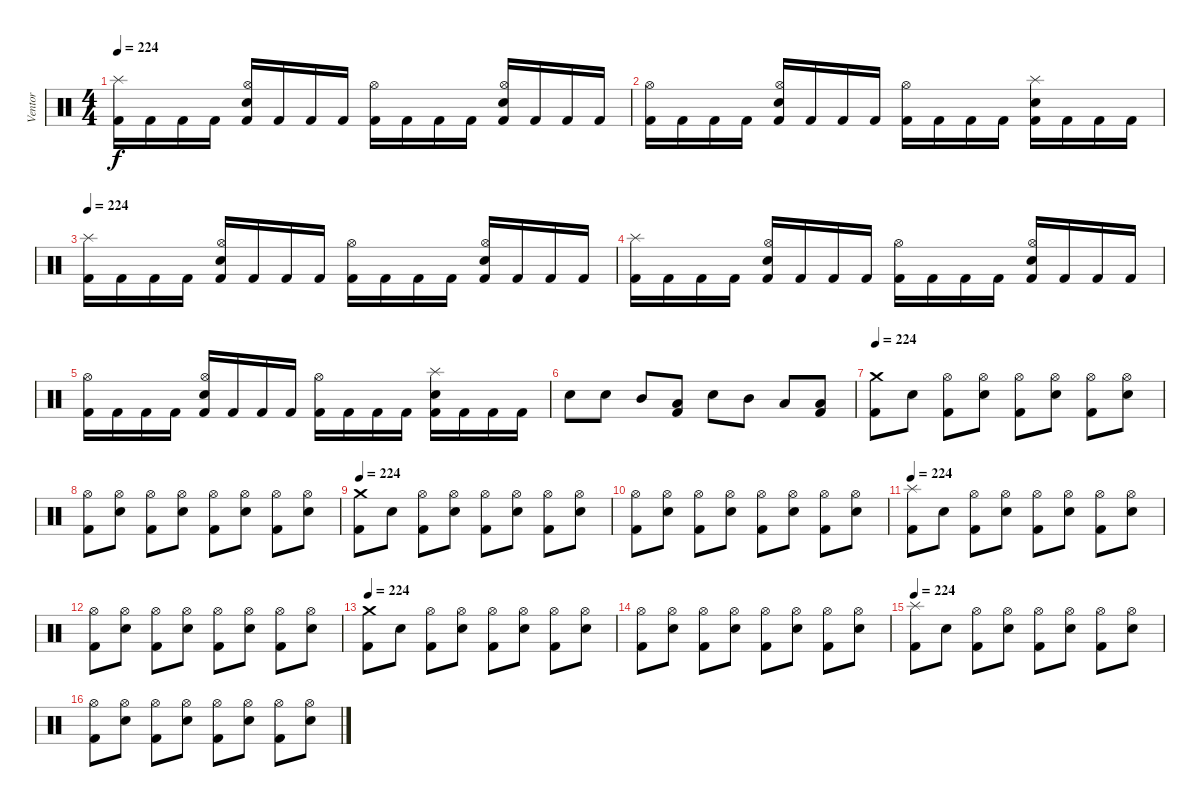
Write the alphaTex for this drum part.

\track ("Ventor" "Ventor") {instrument percussion}
\staff {score}
\articulation defaults
\ts (4 4)
\tempo 224
\clef neutral
\ks c
("Splash (hit)" "Kick (hit) 2").16{dy f} "Kick (hit) 2".16 "Kick (hit) 2".16 "Kick (hit) 2".16 ("Hi-Hat (open)" "Electric Snare (hit)" "Kick (hit) 2").16 "Kick (hit) 2".16 "Kick (hit) 2".16 "Kick (hit) 2".16 ("Hi-Hat (open)" "Kick (hit) 2").16 "Kick (hit) 2".16 "Kick (hit) 2".16 "Kick (hit) 2".16 ("Hi-Hat (open)" "Electric Snare (hit)" "Kick (hit) 2").16 "Kick (hit) 2".16 "Kick (hit) 2".16 "Kick (hit) 2".16 |
("Hi-Hat (open)" "Kick (hit) 2").16 "Kick (hit) 2".16 "Kick (hit) 2".16 "Kick (hit) 2".16 ("Hi-Hat (open)" "Electric Snare (hit)" "Kick (hit) 2").16 "Kick (hit) 2".16 "Kick (hit) 2".16 "Kick (hit) 2".16 ("Hi-Hat (open)" "Kick (hit) 2").16 "Kick (hit) 2".16 "Kick (hit) 2".16 "Kick (hit) 2".16 ("Splash (hit)" "Electric Snare (hit)" "Kick (hit) 2").16 "Kick (hit) 2".16 "Kick (hit) 2".16 "Kick (hit) 2".16 |
\tempo 224
("Splash (hit)" "Kick (hit) 2").16 "Kick (hit) 2".16 "Kick (hit) 2".16 "Kick (hit) 2".16 ("Hi-Hat (open)" "Electric Snare (hit)" "Kick (hit) 2").16 "Kick (hit) 2".16 "Kick (hit) 2".16 "Kick (hit) 2".16 ("Hi-Hat (open)" "Kick (hit) 2").16 "Kick (hit) 2".16 "Kick (hit) 2".16 "Kick (hit) 2".16 ("Hi-Hat (open)" "Electric Snare (hit)" "Kick (hit) 2").16 "Kick (hit) 2".16 "Kick (hit) 2".16 "Kick (hit) 2".16 |
("Splash (hit)" "Kick (hit) 2").16 "Kick (hit) 2".16 "Kick (hit) 2".16 "Kick (hit) 2".16 ("Hi-Hat (open)" "Electric Snare (hit)" "Kick (hit) 2").16 "Kick (hit) 2".16 "Kick (hit) 2".16 "Kick (hit) 2".16 ("Hi-Hat (open)" "Kick (hit) 2").16 "Kick (hit) 2".16 "Kick (hit) 2".16 "Kick (hit) 2".16 ("Hi-Hat (open)" "Electric Snare (hit)" "Kick (hit) 2").16 "Kick (hit) 2".16 "Kick (hit) 2".16 "Kick (hit) 2".16 |
("Hi-Hat (open)" "Kick (hit) 2").16 "Kick (hit) 2".16 "Kick (hit) 2".16 "Kick (hit) 2".16 ("Hi-Hat (open)" "Electric Snare (hit)" "Kick (hit) 2").16 "Kick (hit) 2".16 "Kick (hit) 2".16 "Kick (hit) 2".16 ("Hi-Hat (open)" "Kick (hit) 2").16 "Kick (hit) 2".16 "Kick (hit) 2".16 "Kick (hit) 2".16 ("Splash (hit)" "Electric Snare (hit)" "Kick (hit) 2").16 "Kick (hit) 2".16 "Kick (hit) 2".16 "Kick (hit) 2".16 |
"Electric Snare (hit)".8 "Electric Snare (hit)".8 "Mid Tom (hit)".8 ("Low Tom (hit)" "Kick (hit) 2").8 "Electric Snare (hit)".8 "Mid Tom (hit)".8 "Low Tom (hit)".8 ("Low Floor Tom (hit)" "Kick (hit) 2").8 |
\tempo 224
("Crash medium (hit)" "Kick (hit) 2").8 "Electric Snare (hit)".8 ("Hi-Hat (open)" "Kick (hit) 2").8 ("Hi-Hat (open)" "Electric Snare (hit)").8 ("Hi-Hat (open)" "Kick (hit) 2").8 ("Hi-Hat (open)" "Electric Snare (hit)").8 ("Hi-Hat (open)" "Kick (hit) 2").8 ("Hi-Hat (open)" "Electric Snare (hit)").8 |
("Hi-Hat (open)" "Kick (hit) 2").8 ("Hi-Hat (open)" "Electric Snare (hit)").8 ("Hi-Hat (open)" "Kick (hit) 2").8 ("Hi-Hat (open)" "Electric Snare (hit)").8 ("Hi-Hat (open)" "Kick (hit) 2").8 ("Hi-Hat (open)" "Electric Snare (hit)").8 ("Hi-Hat (open)" "Kick (hit) 2").8 ("Hi-Hat (open)" "Electric Snare (hit)").8 |
\tempo 224
("Crash medium (hit)" "Kick (hit) 2").8 "Electric Snare (hit)".8 ("Hi-Hat (open)" "Kick (hit) 2").8 ("Hi-Hat (open)" "Electric Snare (hit)").8 ("Hi-Hat (open)" "Kick (hit) 2").8 ("Hi-Hat (open)" "Electric Snare (hit)").8 ("Hi-Hat (open)" "Kick (hit) 2").8 ("Hi-Hat (open)" "Electric Snare (hit)").8 |
("Hi-Hat (open)" "Kick (hit) 2").8 ("Hi-Hat (open)" "Electric Snare (hit)").8 ("Hi-Hat (open)" "Kick (hit) 2").8 ("Hi-Hat (open)" "Electric Snare (hit)").8 ("Hi-Hat (open)" "Kick (hit) 2").8 ("Hi-Hat (open)" "Electric Snare (hit)").8 ("Hi-Hat (open)" "Kick (hit) 2").8 ("Hi-Hat (open)" "Electric Snare (hit)").8 |
\tempo 224
("Splash (hit)" "Kick (hit) 2").8 "Electric Snare (hit)".8 ("Hi-Hat (open)" "Kick (hit) 2").8 ("Hi-Hat (open)" "Electric Snare (hit)").8 ("Hi-Hat (open)" "Kick (hit) 2").8 ("Hi-Hat (open)" "Electric Snare (hit)").8 ("Hi-Hat (open)" "Kick (hit) 2").8 ("Hi-Hat (open)" "Electric Snare (hit)").8 |
("Hi-Hat (open)" "Kick (hit) 2").8 ("Hi-Hat (open)" "Electric Snare (hit)").8 ("Hi-Hat (open)" "Kick (hit) 2").8 ("Hi-Hat (open)" "Electric Snare (hit)").8 ("Hi-Hat (open)" "Kick (hit) 2").8 ("Hi-Hat (open)" "Electric Snare (hit)").8 ("Hi-Hat (open)" "Kick (hit) 2").8 ("Hi-Hat (open)" "Electric Snare (hit)").8 |
\tempo 224
("Crash medium (hit)" "Kick (hit) 2").8 "Electric Snare (hit)".8 ("Hi-Hat (open)" "Kick (hit) 2").8 ("Hi-Hat (open)" "Electric Snare (hit)").8 ("Hi-Hat (open)" "Kick (hit) 2").8 ("Hi-Hat (open)" "Electric Snare (hit)").8 ("Hi-Hat (open)" "Kick (hit) 2").8 ("Hi-Hat (open)" "Electric Snare (hit)").8 |
("Hi-Hat (open)" "Kick (hit) 2").8 ("Hi-Hat (open)" "Electric Snare (hit)").8 ("Hi-Hat (open)" "Kick (hit) 2").8 ("Hi-Hat (open)" "Electric Snare (hit)").8 ("Hi-Hat (open)" "Kick (hit) 2").8 ("Hi-Hat (open)" "Electric Snare (hit)").8 ("Hi-Hat (open)" "Kick (hit) 2").8 ("Hi-Hat (open)" "Electric Snare (hit)").8 |
\tempo 224
("Splash (hit)" "Kick (hit) 2").8 "Electric Snare (hit)".8 ("Hi-Hat (open)" "Kick (hit) 2").8 ("Hi-Hat (open)" "Electric Snare (hit)").8 ("Hi-Hat (open)" "Kick (hit) 2").8 ("Hi-Hat (open)" "Electric Snare (hit)").8 ("Hi-Hat (open)" "Kick (hit) 2").8 ("Hi-Hat (open)" "Electric Snare (hit)").8 |
("Hi-Hat (open)" "Kick (hit) 2").8 ("Hi-Hat (open)" "Electric Snare (hit)").8 ("Hi-Hat (open)" "Kick (hit) 2").8 ("Hi-Hat (open)" "Electric Snare (hit)").8 ("Hi-Hat (open)" "Kick (hit) 2").8 ("Hi-Hat (open)" "Electric Snare (hit)").8 ("Hi-Hat (open)" "Kick (hit) 2").8 ("Hi-Hat (open)" "Electric Snare (hit)").8
